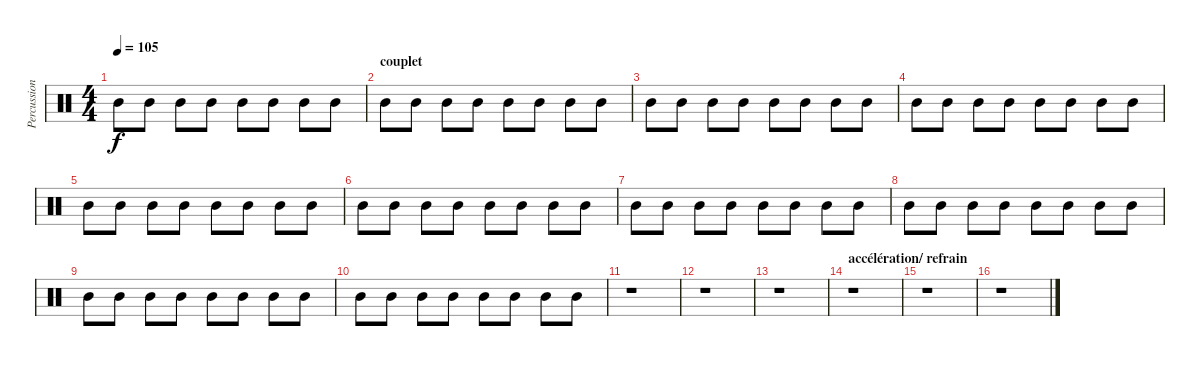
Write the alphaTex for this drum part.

\track ("Percussions" "Percussion") {instrument percussion}
\staff {score}
\articulation defaults
\ts (4 4)
\tempo 105
\clef neutral
\ks c "Mid Tom (hit)".8{dy f} "Mid Tom (hit)".8 "Mid Tom (hit)".8 "Mid Tom (hit)".8 "Mid Tom (hit)".8 "Mid Tom (hit)".8 "Mid Tom (hit)".8 "Mid Tom (hit)".8
|
\section ("" "couplet ")
"Mid Tom (hit)".8 "Mid Tom (hit)".8 "Mid Tom (hit)".8 "Mid Tom (hit)".8 "Mid Tom (hit)".8 "Mid Tom (hit)".8 "Mid Tom (hit)".8 "Mid Tom (hit)".8 |
"Mid Tom (hit)".8 "Mid Tom (hit)".8 "Mid Tom (hit)".8 "Mid Tom (hit)".8 "Mid Tom (hit)".8 "Mid Tom (hit)".8 "Mid Tom (hit)".8 "Mid Tom (hit)".8 |
"Mid Tom (hit)".8 "Mid Tom (hit)".8 "Mid Tom (hit)".8 "Mid Tom (hit)".8 "Mid Tom (hit)".8 "Mid Tom (hit)".8 "Mid Tom (hit)".8 "Mid Tom (hit)".8 |
"Mid Tom (hit)".8 "Mid Tom (hit)".8 "Mid Tom (hit)".8 "Mid Tom (hit)".8 "Mid Tom (hit)".8 "Mid Tom (hit)".8 "Mid Tom (hit)".8 "Mid Tom (hit)".8 |
"Mid Tom (hit)".8 "Mid Tom (hit)".8 "Mid Tom (hit)".8 "Mid Tom (hit)".8 "Mid Tom (hit)".8 "Mid Tom (hit)".8 "Mid Tom (hit)".8 "Mid Tom (hit)".8 |
"Mid Tom (hit)".8 "Mid Tom (hit)".8 "Mid Tom (hit)".8 "Mid Tom (hit)".8 "Mid Tom (hit)".8 "Mid Tom (hit)".8 "Mid Tom (hit)".8 "Mid Tom (hit)".8 |
"Mid Tom (hit)".8 "Mid Tom (hit)".8 "Mid Tom (hit)".8 "Mid Tom (hit)".8 "Mid Tom (hit)".8 "Mid Tom (hit)".8 "Mid Tom (hit)".8 "Mid Tom (hit)".8 |
"Mid Tom (hit)".8 "Mid Tom (hit)".8 "Mid Tom (hit)".8 "Mid Tom (hit)".8 "Mid Tom (hit)".8 "Mid Tom (hit)".8 "Mid Tom (hit)".8 "Mid Tom (hit)".8 |
"Mid Tom (hit)".8 "Mid Tom (hit)".8 "Mid Tom (hit)".8 "Mid Tom (hit)".8 "Mid Tom (hit)".8 "Mid Tom (hit)".8 "Mid Tom (hit)".8 "Mid Tom (hit)".8 |
r.1 |
r.1 |
r.1 |
\section ("" "accélération/ refrain")
r.1 |
r.1 |
r.1
